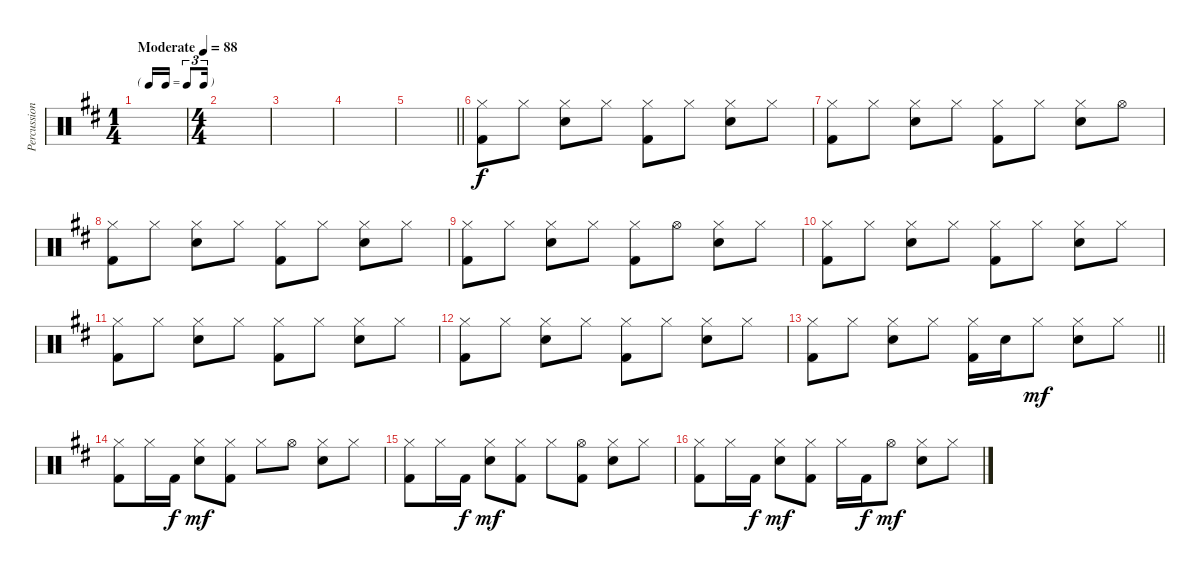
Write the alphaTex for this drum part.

\track ("Percussion" "Percussion") {instrument percussion}
\staff {score}
\articulation defaults
\ts (1 4)
\tf triplet16th
\tempo (88 "Moderate")
\clef neutral
\ks d
|
\ts (4 4)
|
|
|
\barLineRight lightlight
|
("Hi-Hat (closed)" "Kick (hit) 2").8 "Hi-Hat (closed)".8 ("Hi-Hat (closed)" "Snare (hit) 2").8 "Hi-Hat (closed)".8 ("Hi-Hat (closed)" "Kick (hit) 2").8 "Hi-Hat (closed)".8 ("Hi-Hat (closed)" "Snare (hit) 2").8 "Hi-Hat (closed)".8 |
("Hi-Hat (closed)" "Kick (hit) 2").8 "Hi-Hat (closed)".8 ("Hi-Hat (closed)" "Snare (hit) 2").8 "Hi-Hat (closed)".8 ("Hi-Hat (closed)" "Kick (hit) 2").8 "Hi-Hat (closed)".8 ("Hi-Hat (closed)" "Snare (hit) 2").8 "Hi-Hat (open)".8 |
("Hi-Hat (closed)" "Kick (hit) 2").8 "Hi-Hat (closed)".8 ("Hi-Hat (closed)" "Snare (hit) 2").8 "Hi-Hat (closed)".8 ("Hi-Hat (closed)" "Kick (hit) 2").8 "Hi-Hat (closed)".8 ("Hi-Hat (closed)" "Snare (hit) 2").8 "Hi-Hat (closed)".8 |
("Hi-Hat (closed)" "Kick (hit) 2").8 "Hi-Hat (closed)".8 ("Hi-Hat (closed)" "Snare (hit) 2").8 "Hi-Hat (closed)".8 ("Hi-Hat (closed)" "Kick (hit) 2").8 "Hi-Hat (open)".8 ("Hi-Hat (closed)" "Snare (hit) 2").8 "Hi-Hat (closed)".8 |
("Hi-Hat (closed)" "Kick (hit) 2").8 "Hi-Hat (closed)".8 ("Hi-Hat (closed)" "Snare (hit) 2").8 "Hi-Hat (closed)".8 ("Hi-Hat (closed)" "Kick (hit) 2").8 "Hi-Hat (closed)".8 ("Hi-Hat (closed)" "Snare (hit) 2").8 "Hi-Hat (closed)".8 |
("Hi-Hat (closed)" "Kick (hit) 2").8 "Hi-Hat (closed)".8 ("Hi-Hat (closed)" "Snare (hit) 2").8 "Hi-Hat (closed)".8 ("Hi-Hat (closed)" "Kick (hit) 2").8 "Hi-Hat (closed)".8 ("Hi-Hat (closed)" "Snare (hit) 2").8 "Hi-Hat (closed)".8 |
("Hi-Hat (closed)" "Kick (hit) 2").8 "Hi-Hat (closed)".8 ("Hi-Hat (closed)" "Snare (hit) 2").8 "Hi-Hat (closed)".8 ("Hi-Hat (closed)" "Kick (hit) 2").8 "Hi-Hat (closed)".8 ("Hi-Hat (closed)" "Snare (hit) 2").8 "Hi-Hat (closed)".8 |
\barLineRight lightlight
("Hi-Hat (closed)" "Kick (hit) 2").8 "Hi-Hat (closed)".8 ("Hi-Hat (closed)" "Snare (hit) 2").8 "Hi-Hat (closed)".8 ("Hi-Hat (closed)" "Kick (hit) 2").16 "Snare (hit) 2".16{dy f} "Hi-Hat (closed)".8{dy mf} ("Hi-Hat (closed)" "Snare (hit) 2").8 "Hi-Hat (closed)".8 |
("Hi-Hat (closed)" "Kick (hit) 2").8 "Hi-Hat (closed)".16 "Kick (hit) 2".16{dy f} ("Hi-Hat (closed)" "Snare (hit) 2").8{dy mf} ("Hi-Hat (closed)" "Kick (hit) 2").8 "Hi-Hat (closed)".8 "Hi-Hat (open)".8 ("Hi-Hat (closed)" "Snare (hit) 2").8 "Hi-Hat (closed)".8 |
("Hi-Hat (closed)" "Kick (hit) 2").8 "Hi-Hat (closed)".16 "Kick (hit) 2".16{dy f} ("Hi-Hat (closed)" "Snare (hit) 2").8{dy mf} ("Hi-Hat (closed)" "Kick (hit) 2").8 "Hi-Hat (closed)".8 ("Hi-Hat (open)" "Kick (hit) 2").8 ("Hi-Hat (closed)" "Snare (hit) 2").8 "Hi-Hat (closed)".8 |
("Hi-Hat (closed)" "Kick (hit) 2").8 "Hi-Hat (closed)".16 "Kick (hit) 2".16{dy f} ("Hi-Hat (closed)" "Snare (hit) 2").8{dy mf} ("Hi-Hat (closed)" "Kick (hit) 2").8 "Hi-Hat (closed)".16 "Kick (hit) 2".16{dy f} "Hi-Hat (open)".8{dy mf} ("Hi-Hat (closed)" "Snare (hit) 2").8 "Hi-Hat (closed)".8
